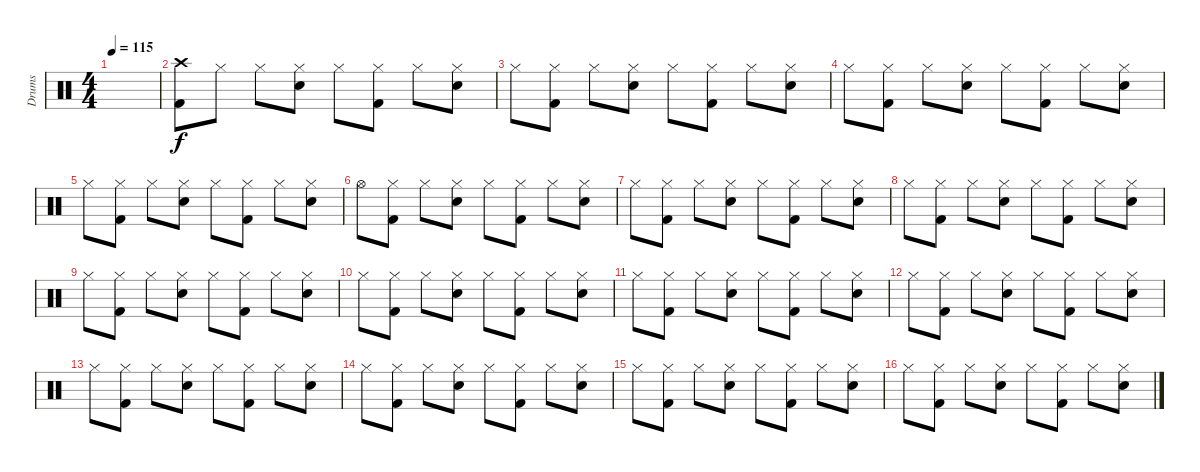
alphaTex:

\track ("Drums" "Drums") {instrument percussion}
\staff {score}
\articulation defaults
\ts (4 4)
\tempo 115
\clef neutral
\ks c
|
("Kick (hit) 2" "Crash high (hit)").8 "Hi-Hat (closed)".8 "Hi-Hat (closed)".8 ("Snare (hit) 2" "Hi-Hat (closed)").8 "Hi-Hat (closed)".8 ("Kick (hit) 2" "Hi-Hat (closed)").8 "Hi-Hat (closed)".8 ("Snare (hit) 2" "Hi-Hat (closed)").8 |
"Hi-Hat (closed)".8 ("Kick (hit) 2" "Hi-Hat (closed)").8 "Hi-Hat (closed)".8 ("Snare (hit) 2" "Hi-Hat (closed)").8 "Hi-Hat (closed)".8 ("Kick (hit) 2" "Hi-Hat (closed)").8 "Hi-Hat (closed)".8 ("Snare (hit) 2" "Hi-Hat (closed)").8 |
"Hi-Hat (closed)".8 ("Kick (hit) 2" "Hi-Hat (closed)").8 "Hi-Hat (closed)".8 ("Snare (hit) 2" "Hi-Hat (closed)").8 "Hi-Hat (closed)".8 ("Kick (hit) 2" "Hi-Hat (closed)").8 "Hi-Hat (closed)".8 ("Snare (hit) 2" "Hi-Hat (closed)").8 |
"Hi-Hat (closed)".8 ("Kick (hit) 2" "Hi-Hat (closed)").8 "Hi-Hat (closed)".8 ("Snare (hit) 2" "Hi-Hat (closed)").8 "Hi-Hat (closed)".8 ("Kick (hit) 2" "Hi-Hat (closed)").8 "Hi-Hat (closed)".8 ("Snare (hit) 2" "Hi-Hat (closed)").8 |
"Hi-Hat (open)".8 ("Kick (hit) 2" "Hi-Hat (closed)").8 "Hi-Hat (closed)".8 ("Snare (hit) 2" "Hi-Hat (closed)").8 "Hi-Hat (closed)".8 ("Kick (hit) 2" "Hi-Hat (closed)").8 "Hi-Hat (closed)".8 ("Snare (hit) 2" "Hi-Hat (closed)").8 |
"Hi-Hat (closed)".8 ("Kick (hit) 2" "Hi-Hat (closed)").8 "Hi-Hat (closed)".8 ("Snare (hit) 2" "Hi-Hat (closed)").8 "Hi-Hat (closed)".8 ("Kick (hit) 2" "Hi-Hat (closed)").8 "Hi-Hat (closed)".8 ("Snare (hit) 2" "Hi-Hat (closed)").8 |
"Hi-Hat (closed)".8 ("Kick (hit) 2" "Hi-Hat (closed)").8 "Hi-Hat (closed)".8 ("Snare (hit) 2" "Hi-Hat (closed)").8 "Hi-Hat (closed)".8 ("Kick (hit) 2" "Hi-Hat (closed)").8 "Hi-Hat (closed)".8 ("Snare (hit) 2" "Hi-Hat (closed)").8 |
"Hi-Hat (closed)".8 ("Kick (hit) 2" "Hi-Hat (closed)").8 "Hi-Hat (closed)".8 ("Snare (hit) 2" "Hi-Hat (closed)").8 "Hi-Hat (closed)".8 ("Kick (hit) 2" "Hi-Hat (closed)").8 "Hi-Hat (closed)".8 ("Snare (hit) 2" "Hi-Hat (closed)").8 |
"Hi-Hat (closed)".8 ("Kick (hit) 2" "Hi-Hat (closed)").8 "Hi-Hat (closed)".8 ("Snare (hit) 2" "Hi-Hat (closed)").8 "Hi-Hat (closed)".8 ("Kick (hit) 2" "Hi-Hat (closed)").8 "Hi-Hat (closed)".8 ("Snare (hit) 2" "Hi-Hat (closed)").8 |
"Hi-Hat (closed)".8 ("Kick (hit) 2" "Hi-Hat (closed)").8 "Hi-Hat (closed)".8 ("Snare (hit) 2" "Hi-Hat (closed)").8 "Hi-Hat (closed)".8 ("Kick (hit) 2" "Hi-Hat (closed)").8 "Hi-Hat (closed)".8 ("Snare (hit) 2" "Hi-Hat (closed)").8 |
"Hi-Hat (closed)".8 ("Kick (hit) 2" "Hi-Hat (closed)").8 "Hi-Hat (closed)".8 ("Snare (hit) 2" "Hi-Hat (closed)").8 "Hi-Hat (closed)".8 ("Kick (hit) 2" "Hi-Hat (closed)").8 "Hi-Hat (closed)".8 ("Snare (hit) 2" "Hi-Hat (closed)").8 |
"Hi-Hat (closed)".8 ("Kick (hit) 2" "Hi-Hat (closed)").8 "Hi-Hat (closed)".8 ("Snare (hit) 2" "Hi-Hat (closed)").8 "Hi-Hat (closed)".8 ("Kick (hit) 2" "Hi-Hat (closed)").8 "Hi-Hat (closed)".8 ("Snare (hit) 2" "Hi-Hat (closed)").8 |
"Hi-Hat (closed)".8 ("Kick (hit) 2" "Hi-Hat (closed)").8 "Hi-Hat (closed)".8 ("Snare (hit) 2" "Hi-Hat (closed)").8 "Hi-Hat (closed)".8 ("Kick (hit) 2" "Hi-Hat (closed)").8 "Hi-Hat (closed)".8 ("Snare (hit) 2" "Hi-Hat (closed)").8 |
"Hi-Hat (closed)".8 ("Kick (hit) 2" "Hi-Hat (closed)").8 "Hi-Hat (closed)".8 ("Snare (hit) 2" "Hi-Hat (closed)").8 "Hi-Hat (closed)".8 ("Kick (hit) 2" "Hi-Hat (closed)").8 "Hi-Hat (closed)".8 ("Snare (hit) 2" "Hi-Hat (closed)").8 |
"Hi-Hat (closed)".8 ("Kick (hit) 2" "Hi-Hat (closed)").8 "Hi-Hat (closed)".8 ("Snare (hit) 2" "Hi-Hat (closed)").8 "Hi-Hat (closed)".8 ("Kick (hit) 2" "Hi-Hat (closed)").8 "Hi-Hat (closed)".8 ("Snare (hit) 2" "Hi-Hat (closed)").8
